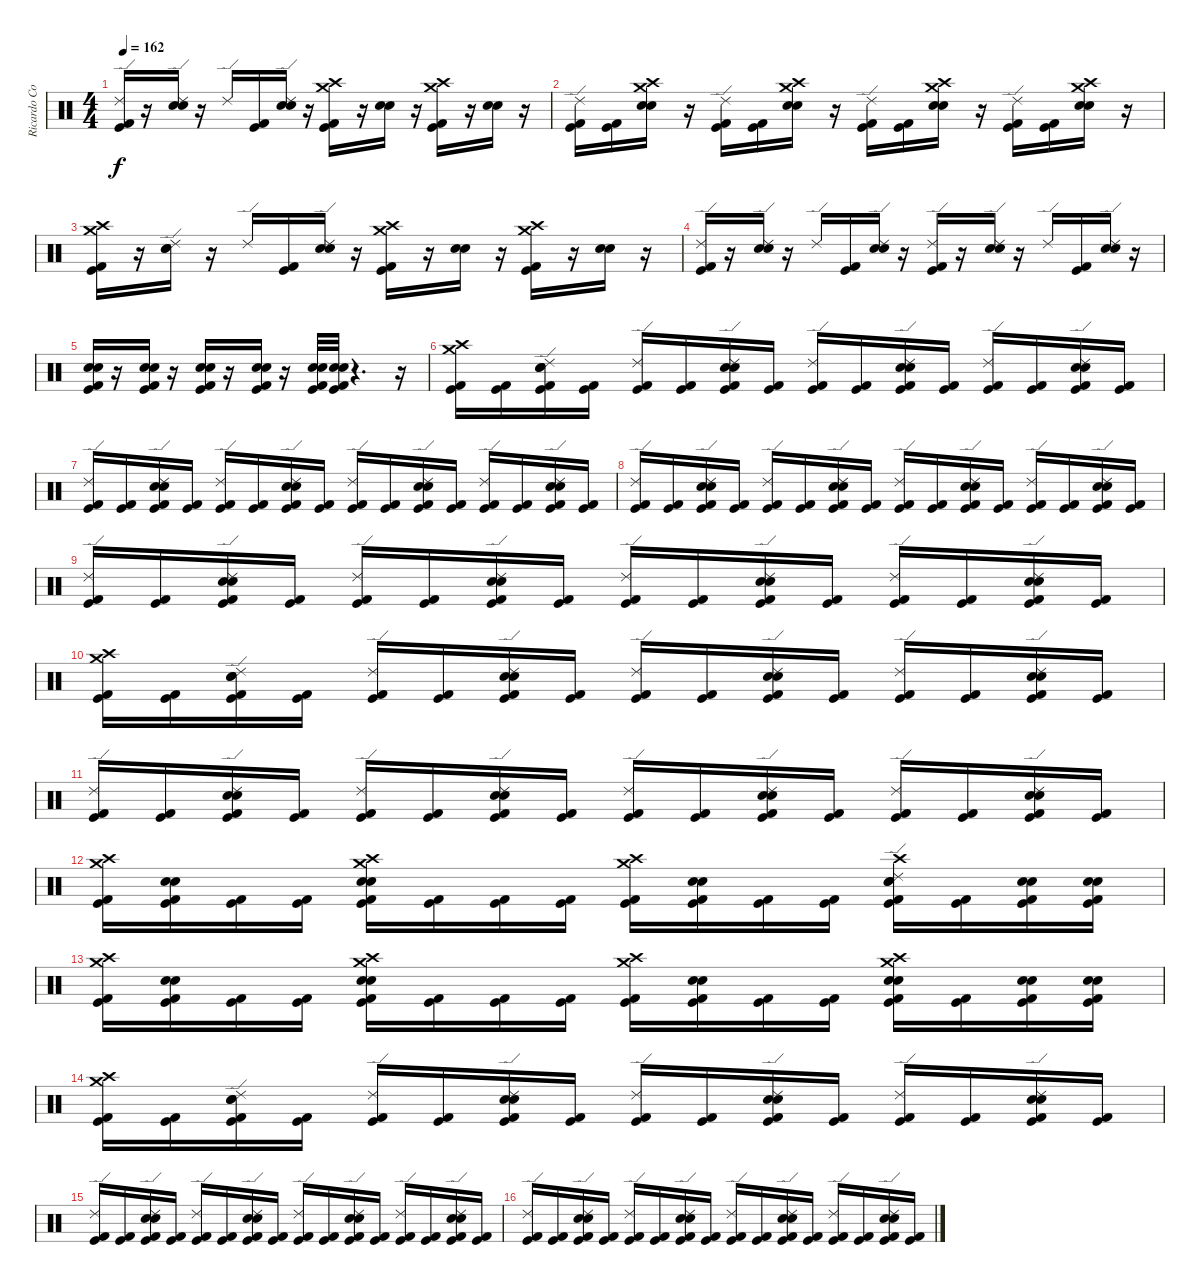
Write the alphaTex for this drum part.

\track ("Ricardo Confessori" "Ricardo Co") {instrument percussion}
\staff {score}
\articulation defaults
\ts (4 4)
\tempo 162
\clef neutral
\ks c
("Ride (edge) 2" "Kick (hit) 2" "Kick (hit)").16{dy f} r.16 ("Ride (edge) 2" "Electric Snare (hit)" "Snare (hit) 2").16 r.16 "Ride (edge) 2".16 ("Kick (hit) 2" "Kick (hit)").16 ("Ride (edge) 2" "Electric Snare (hit)" "Snare (hit) 2").16 r.16 ("Crash high (hit)" "Crash medium (hit)" "Kick (hit) 2" "Kick (hit)").16 r.16 ("Electric Snare (hit)" "Snare (hit) 2").16 r.16 ("Crash high (hit)" "Crash medium (hit)" "Kick (hit)" "Kick (hit) 2").16 r.16 ("Electric Snare (hit)" "Snare (hit) 2").16 r.16 |
("Ride (edge) 2" "Kick (hit) 2" "Kick (hit)").16 ("Kick (hit) 2" "Kick (hit)").16 ("Crash high (hit)" "Crash medium (hit)" "Electric Snare (hit)" "Snare (hit) 2").16 r.16 ("Ride (edge) 2" "Kick (hit) 2" "Kick (hit)").16 ("Kick (hit) 2" "Kick (hit)").16 ("Crash high (hit)" "Crash medium (hit)" "Electric Snare (hit)" "Snare (hit) 2").16 r.16 ("Ride (edge) 2" "Kick (hit) 2" "Kick (hit)").16 ("Kick (hit) 2" "Kick (hit)").16 ("Crash high (hit)" "Crash medium (hit)" "Electric Snare (hit)" "Snare (hit) 2").16 r.16 ("Ride (edge) 2" "Kick (hit) 2" "Kick (hit)").16 ("Kick (hit) 2" "Kick (hit)").16 ("Crash medium (hit)" "Crash high (hit)" "Electric Snare (hit)" "Snare (hit) 2").16 r.16 |
("Crash medium (hit)" "Crash high (hit)" "Kick (hit) 2" "Kick (hit)").16 r.16 ("Ride (edge) 2" "Electric Snare (hit)" "Snare (hit) 2").16 r.16 "Ride (edge) 2".16 ("Kick (hit) 2" "Kick (hit)").16 ("Ride (edge) 2" "Electric Snare (hit)" "Snare (hit) 2").16 r.16 ("Crash high (hit)" "Crash medium (hit)" "Kick (hit) 2" "Kick (hit)").16 r.16 ("Electric Snare (hit)" "Snare (hit) 2").16 r.16 ("Crash high (hit)" "Crash medium (hit)" "Kick (hit) 2" "Kick (hit)").16 r.16 ("Electric Snare (hit)" "Snare (hit) 2").16 r.16 |
("Ride (edge) 2" "Kick (hit) 2" "Kick (hit)").16 r.16 ("Ride (edge) 2" "Electric Snare (hit)" "Snare (hit) 2").16 r.16 "Ride (edge) 2".16 ("Kick (hit)" "Kick (hit) 2").16 ("Ride (edge) 2" "Electric Snare (hit)" "Snare (hit) 2").16 r.16 ("Ride (edge) 2" "Kick (hit) 2" "Kick (hit)").16 r.16 ("Ride (edge) 2" "Electric Snare (hit)" "Snare (hit) 2").16 r.16 "Ride (edge) 2".16 ("Kick (hit)" "Kick (hit) 2").16 ("Ride (edge) 2" "Electric Snare (hit)" "Snare (hit) 2").16 r.16 |
("Kick (hit) 2" "Snare (hit) 2" "Electric Snare (hit)" "Kick (hit)").16 r.16 ("Electric Snare (hit)" "Snare (hit) 2" "Kick (hit) 2" "Kick (hit)").16 r.16 ("Kick (hit) 2" "Snare (hit) 2" "Electric Snare (hit)" "Kick (hit)").16 r.16 ("Electric Snare (hit)" "Snare (hit) 2" "Kick (hit) 2" "Kick (hit)").16 r.16 ("Kick (hit) 2" "Kick (hit)" "Electric Snare (hit)" "Snare (hit) 2").32 ("Kick (hit) 2" "Kick (hit)" "Electric Snare (hit)" "Snare (hit) 2").32 r.4{d} r.16 |
("Crash high (hit)" "Crash medium (hit)" "Kick (hit) 2" "Kick (hit)").16 ("Kick (hit) 2" "Kick (hit)").16 ("Ride (edge) 2" "Snare (hit) 2" "Electric Snare (hit)" "Kick (hit) 2" "Kick (hit)").16 ("Kick (hit) 2" "Kick (hit)").16 ("Ride (edge) 2" "Kick (hit) 2" "Kick (hit)").16 ("Kick (hit) 2" "Kick (hit)").16 ("Ride (edge) 2" "Electric Snare (hit)" "Snare (hit) 2" "Kick (hit) 2" "Kick (hit)").16 ("Kick (hit) 2" "Kick (hit)").16 ("Ride (edge) 2" "Kick (hit) 2" "Kick (hit)").16 ("Kick (hit) 2" "Kick (hit)").16 ("Ride (edge) 2" "Snare (hit) 2" "Electric Snare (hit)" "Kick (hit) 2" "Kick (hit)").16 ("Kick (hit) 2" "Kick (hit)").16 ("Ride (edge) 2" "Kick (hit) 2" "Kick (hit)").16 ("Kick (hit) 2" "Kick (hit)").16 ("Ride (edge) 2" "Electric Snare (hit)" "Snare (hit) 2" "Kick (hit) 2" "Kick (hit)").16 ("Kick (hit) 2" "Kick (hit)").16 |
("Ride (edge) 2" "Kick (hit) 2" "Kick (hit)").16 ("Kick (hit) 2" "Kick (hit)").16 ("Ride (edge) 2" "Snare (hit) 2" "Electric Snare (hit)" "Kick (hit) 2" "Kick (hit)").16 ("Kick (hit) 2" "Kick (hit)").16 ("Ride (edge) 2" "Kick (hit) 2" "Kick (hit)").16 ("Kick (hit) 2" "Kick (hit)").16 ("Ride (edge) 2" "Electric Snare (hit)" "Snare (hit) 2" "Kick (hit) 2" "Kick (hit)").16 ("Kick (hit) 2" "Kick (hit)").16 ("Ride (edge) 2" "Kick (hit) 2" "Kick (hit)").16 ("Kick (hit) 2" "Kick (hit)").16 ("Ride (edge) 2" "Snare (hit) 2" "Electric Snare (hit)" "Kick (hit) 2" "Kick (hit)").16 ("Kick (hit) 2" "Kick (hit)").16 ("Ride (edge) 2" "Kick (hit) 2" "Kick (hit)").16 ("Kick (hit) 2" "Kick (hit)").16 ("Ride (edge) 2" "Electric Snare (hit)" "Snare (hit) 2" "Kick (hit) 2" "Kick (hit)").16 ("Kick (hit) 2" "Kick (hit)").16 |
("Ride (edge) 2" "Kick (hit) 2" "Kick (hit)").16 ("Kick (hit) 2" "Kick (hit)").16 ("Ride (edge) 2" "Snare (hit) 2" "Electric Snare (hit)" "Kick (hit) 2" "Kick (hit)").16 ("Kick (hit) 2" "Kick (hit)").16 ("Ride (edge) 2" "Kick (hit) 2" "Kick (hit)").16 ("Kick (hit) 2" "Kick (hit)").16 ("Ride (edge) 2" "Electric Snare (hit)" "Snare (hit) 2" "Kick (hit) 2" "Kick (hit)").16 ("Kick (hit) 2" "Kick (hit)").16 ("Ride (edge) 2" "Kick (hit) 2" "Kick (hit)").16 ("Kick (hit) 2" "Kick (hit)").16 ("Ride (edge) 2" "Snare (hit) 2" "Electric Snare (hit)" "Kick (hit) 2" "Kick (hit)").16 ("Kick (hit) 2" "Kick (hit)").16 ("Ride (edge) 2" "Kick (hit) 2" "Kick (hit)").16 ("Kick (hit) 2" "Kick (hit)").16 ("Ride (edge) 2" "Electric Snare (hit)" "Snare (hit) 2" "Kick (hit) 2" "Kick (hit)").16 ("Kick (hit) 2" "Kick (hit)").16 |
("Ride (edge) 2" "Kick (hit) 2" "Kick (hit)").16 ("Kick (hit) 2" "Kick (hit)").16 ("Ride (edge) 2" "Snare (hit) 2" "Electric Snare (hit)" "Kick (hit) 2" "Kick (hit)").16 ("Kick (hit) 2" "Kick (hit)").16 ("Ride (edge) 2" "Kick (hit) 2" "Kick (hit)").16 ("Kick (hit) 2" "Kick (hit)").16 ("Ride (edge) 2" "Electric Snare (hit)" "Snare (hit) 2" "Kick (hit) 2" "Kick (hit)").16 ("Kick (hit) 2" "Kick (hit)").16 ("Ride (edge) 2" "Kick (hit) 2" "Kick (hit)").16 ("Kick (hit) 2" "Kick (hit)").16 ("Ride (edge) 2" "Snare (hit) 2" "Electric Snare (hit)" "Kick (hit) 2" "Kick (hit)").16 ("Kick (hit) 2" "Kick (hit)").16 ("Ride (edge) 2" "Kick (hit) 2" "Kick (hit)").16 ("Kick (hit) 2" "Kick (hit)").16 ("Ride (edge) 2" "Electric Snare (hit)" "Snare (hit) 2" "Kick (hit) 2" "Kick (hit)").16 ("Kick (hit) 2" "Kick (hit)").16 |
("Crash high (hit)" "Crash medium (hit)" "Kick (hit) 2" "Kick (hit)").16 ("Kick (hit) 2" "Kick (hit)").16 ("Ride (edge) 2" "Snare (hit) 2" "Electric Snare (hit)" "Kick (hit) 2" "Kick (hit)").16 ("Kick (hit) 2" "Kick (hit)").16 ("Ride (edge) 2" "Kick (hit) 2" "Kick (hit)").16 ("Kick (hit) 2" "Kick (hit)").16 ("Ride (edge) 2" "Electric Snare (hit)" "Snare (hit) 2" "Kick (hit) 2" "Kick (hit)").16 ("Kick (hit) 2" "Kick (hit)").16 ("Ride (edge) 2" "Kick (hit) 2" "Kick (hit)").16 ("Kick (hit) 2" "Kick (hit)").16 ("Ride (edge) 2" "Snare (hit) 2" "Electric Snare (hit)" "Kick (hit) 2" "Kick (hit)").16 ("Kick (hit) 2" "Kick (hit)").16 ("Ride (edge) 2" "Kick (hit) 2" "Kick (hit)").16 ("Kick (hit) 2" "Kick (hit)").16 ("Ride (edge) 2" "Electric Snare (hit)" "Snare (hit) 2" "Kick (hit) 2" "Kick (hit)").16 ("Kick (hit) 2" "Kick (hit)").16 |
("Ride (edge) 2" "Kick (hit) 2" "Kick (hit)").16 ("Kick (hit) 2" "Kick (hit)").16 ("Ride (edge) 2" "Snare (hit) 2" "Electric Snare (hit)" "Kick (hit) 2" "Kick (hit)").16 ("Kick (hit) 2" "Kick (hit)").16 ("Ride (edge) 2" "Kick (hit) 2" "Kick (hit)").16 ("Kick (hit) 2" "Kick (hit)").16 ("Ride (edge) 2" "Electric Snare (hit)" "Snare (hit) 2" "Kick (hit) 2" "Kick (hit)").16 ("Kick (hit) 2" "Kick (hit)").16 ("Ride (edge) 2" "Kick (hit) 2" "Kick (hit)").16 ("Kick (hit) 2" "Kick (hit)").16 ("Ride (edge) 2" "Snare (hit) 2" "Electric Snare (hit)" "Kick (hit) 2" "Kick (hit)").16 ("Kick (hit) 2" "Kick (hit)").16 ("Ride (edge) 2" "Kick (hit) 2" "Kick (hit)").16 ("Kick (hit) 2" "Kick (hit)").16 ("Ride (edge) 2" "Electric Snare (hit)" "Snare (hit) 2" "Kick (hit) 2" "Kick (hit)").16 ("Kick (hit) 2" "Kick (hit)").16 |
("Crash high (hit)" "Crash medium (hit)" "Kick (hit) 2" "Kick (hit)").16 ("Electric Snare (hit)" "Snare (hit) 2" "Kick (hit) 2" "Kick (hit)").16 ("Kick (hit) 2" "Kick (hit)").16 ("Kick (hit) 2" "Kick (hit)").16 ("Electric Snare (hit)" "Snare (hit) 2" "Crash high (hit)" "Crash medium (hit)" "Kick (hit) 2" "Kick (hit)").16 ("Kick (hit) 2" "Kick (hit)").16 ("Kick (hit) 2" "Kick (hit)").16 ("Kick (hit) 2" "Kick (hit)").16 ("Crash high (hit)" "Crash medium (hit)" "Kick (hit) 2" "Kick (hit)").16 ("Electric Snare (hit)" "Snare (hit) 2" "Kick (hit) 2" "Kick (hit)").16 ("Kick (hit) 2" "Kick (hit)").16 ("Kick (hit) 2" "Kick (hit)").16 ("Electric Snare (hit)" "Crash high (hit)" "Snare (hit) 2" "Ride (edge) 2" "Kick (hit) 2" "Kick (hit)").16 ("Kick (hit) 2" "Kick (hit)").16 ("Electric Snare (hit)" "Snare (hit) 2" "Kick (hit) 2" "Kick (hit)").16 ("Electric Snare (hit)" "Snare (hit) 2" "Kick (hit) 2" "Kick (hit)").16 |
("Crash high (hit)" "Crash medium (hit)" "Kick (hit) 2" "Kick (hit)").16 ("Electric Snare (hit)" "Snare (hit) 2" "Kick (hit) 2" "Kick (hit)").16 ("Kick (hit) 2" "Kick (hit)").16 ("Kick (hit) 2" "Kick (hit)").16 ("Crash high (hit)" "Electric Snare (hit)" "Snare (hit) 2" "Crash medium (hit)" "Kick (hit) 2" "Kick (hit)").16 ("Kick (hit) 2" "Kick (hit)").16 ("Kick (hit) 2" "Kick (hit)").16 ("Kick (hit) 2" "Kick (hit)").16 ("Crash high (hit)" "Crash medium (hit)" "Kick (hit) 2" "Kick (hit)").16 ("Electric Snare (hit)" "Snare (hit) 2" "Kick (hit) 2" "Kick (hit)").16 ("Kick (hit) 2" "Kick (hit)").16 ("Kick (hit) 2" "Kick (hit)").16 ("Electric Snare (hit)" "Snare (hit) 2" "Crash high (hit)" "Crash medium (hit)" "Kick (hit) 2" "Kick (hit)").16 ("Kick (hit) 2" "Kick (hit)").16 ("Electric Snare (hit)" "Snare (hit) 2" "Kick (hit) 2" "Kick (hit)").16 ("Electric Snare (hit)" "Snare (hit) 2" "Kick (hit) 2" "Kick (hit)").16 |
("Crash high (hit)" "Crash medium (hit)" "Kick (hit) 2" "Kick (hit)").16 ("Kick (hit) 2" "Kick (hit)").16 ("Ride (edge) 2" "Snare (hit) 2" "Electric Snare (hit)" "Kick (hit) 2" "Kick (hit)").16 ("Kick (hit) 2" "Kick (hit)").16 ("Ride (edge) 2" "Kick (hit) 2" "Kick (hit)").16 ("Kick (hit) 2" "Kick (hit)").16 ("Ride (edge) 2" "Electric Snare (hit)" "Snare (hit) 2" "Kick (hit) 2" "Kick (hit)").16 ("Kick (hit) 2" "Kick (hit)").16 ("Ride (edge) 2" "Kick (hit) 2" "Kick (hit)").16 ("Kick (hit) 2" "Kick (hit)").16 ("Ride (edge) 2" "Snare (hit) 2" "Electric Snare (hit)" "Kick (hit) 2" "Kick (hit)").16 ("Kick (hit) 2" "Kick (hit)").16 ("Ride (edge) 2" "Kick (hit) 2" "Kick (hit)").16 ("Kick (hit) 2" "Kick (hit)").16 ("Ride (edge) 2" "Electric Snare (hit)" "Snare (hit) 2" "Kick (hit) 2" "Kick (hit)").16 ("Kick (hit) 2" "Kick (hit)").16 |
("Ride (edge) 2" "Kick (hit) 2" "Kick (hit)").16 ("Kick (hit) 2" "Kick (hit)").16 ("Ride (edge) 2" "Snare (hit) 2" "Electric Snare (hit)" "Kick (hit) 2" "Kick (hit)").16 ("Kick (hit) 2" "Kick (hit)").16 ("Ride (edge) 2" "Kick (hit) 2" "Kick (hit)").16 ("Kick (hit) 2" "Kick (hit)").16 ("Ride (edge) 2" "Electric Snare (hit)" "Snare (hit) 2" "Kick (hit) 2" "Kick (hit)").16 ("Kick (hit) 2" "Kick (hit)").16 ("Ride (edge) 2" "Kick (hit) 2" "Kick (hit)").16 ("Kick (hit) 2" "Kick (hit)").16 ("Ride (edge) 2" "Snare (hit) 2" "Electric Snare (hit)" "Kick (hit) 2" "Kick (hit)").16 ("Kick (hit) 2" "Kick (hit)").16 ("Ride (edge) 2" "Kick (hit) 2" "Kick (hit)").16 ("Kick (hit) 2" "Kick (hit)").16 ("Ride (edge) 2" "Electric Snare (hit)" "Snare (hit) 2" "Kick (hit) 2" "Kick (hit)").16 ("Kick (hit) 2" "Kick (hit)").16 |
("Ride (edge) 2" "Kick (hit) 2" "Kick (hit)").16 ("Kick (hit) 2" "Kick (hit)").16 ("Ride (edge) 2" "Snare (hit) 2" "Electric Snare (hit)" "Kick (hit) 2" "Kick (hit)").16 ("Kick (hit) 2" "Kick (hit)").16 ("Ride (edge) 2" "Kick (hit) 2" "Kick (hit)").16 ("Kick (hit) 2" "Kick (hit)").16 ("Ride (edge) 2" "Electric Snare (hit)" "Snare (hit) 2" "Kick (hit) 2" "Kick (hit)").16 ("Kick (hit) 2" "Kick (hit)").16 ("Ride (edge) 2" "Kick (hit) 2" "Kick (hit)").16 ("Kick (hit) 2" "Kick (hit)").16 ("Ride (edge) 2" "Snare (hit) 2" "Electric Snare (hit)" "Kick (hit) 2" "Kick (hit)").16 ("Kick (hit) 2" "Kick (hit)").16 ("Ride (edge) 2" "Kick (hit) 2" "Kick (hit)").16 ("Kick (hit) 2" "Kick (hit)").16 ("Ride (edge) 2" "Electric Snare (hit)" "Snare (hit) 2" "Kick (hit) 2" "Kick (hit)").16 ("Kick (hit) 2" "Kick (hit)").16
